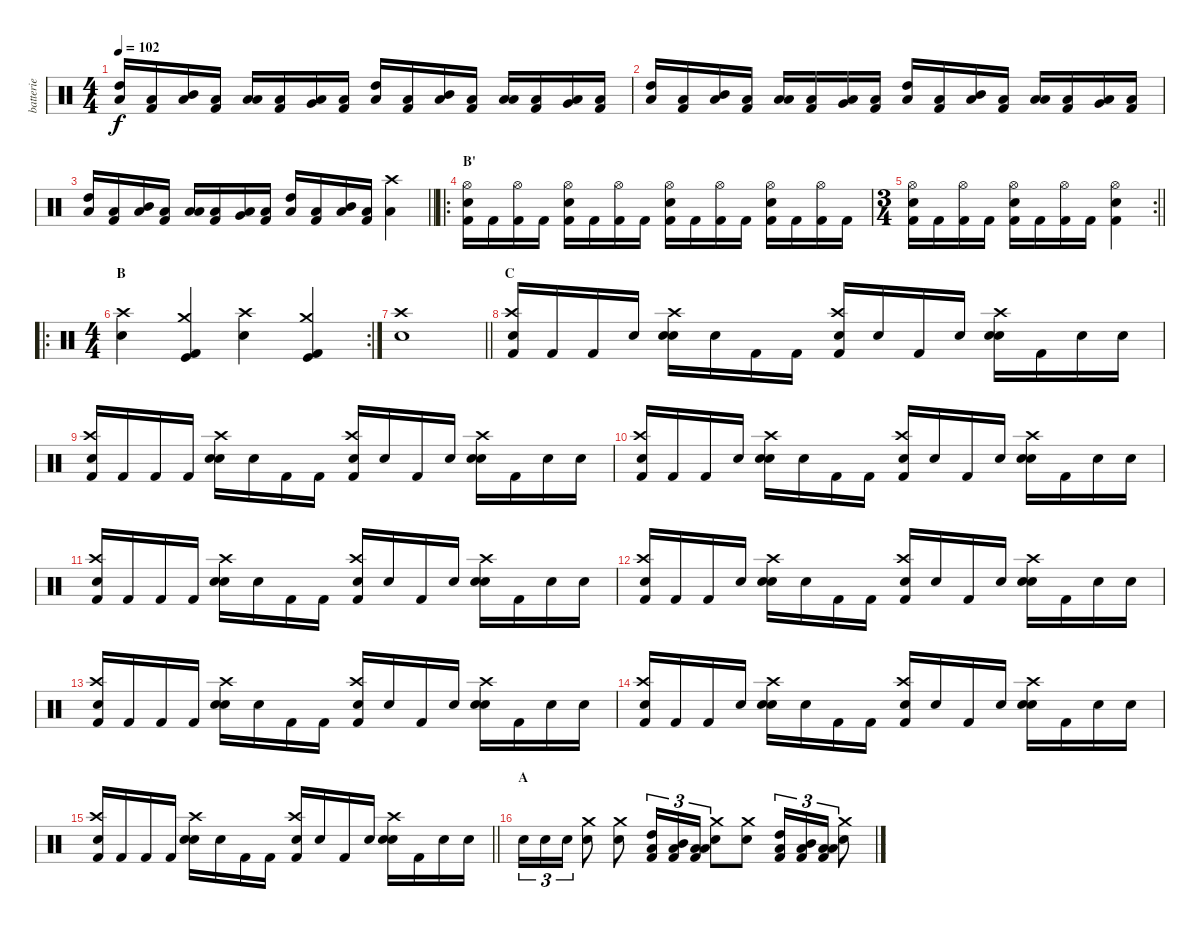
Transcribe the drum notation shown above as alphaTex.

\track ("batterie" "batterie") {instrument percussion}
\staff {score}
\articulation defaults
\ts (4 4)
\tempo 102
\clef neutral
\ks c
("High Tom (hit)" "Low Floor Tom (hit)").16{dy f} ("Low Floor Tom (hit)" "Kick (hit) 2").16 ("Mid Tom (hit)" "Low Floor Tom (hit)").16 ("Low Floor Tom (hit)" "Kick (hit) 2").16 ("Low Tom (hit)" "Low Floor Tom (hit)").16 ("Low Floor Tom (hit)" "Kick (hit) 2").16 ("Very Low Tom (hit)" "Low Floor Tom (hit)").16 ("Low Floor Tom (hit)" "Kick (hit) 2").16 ("High Tom (hit)" "Low Floor Tom (hit)").16 ("Low Floor Tom (hit)" "Kick (hit) 2").16 ("Mid Tom (hit)" "Low Floor Tom (hit)").16 ("Low Floor Tom (hit)" "Kick (hit) 2").16 ("Low Tom (hit)" "Low Floor Tom (hit)").16 ("Low Floor Tom (hit)" "Kick (hit) 2").16 ("Very Low Tom (hit)" "Low Floor Tom (hit)").16 ("Low Floor Tom (hit)" "Kick (hit) 2").16 |
("High Tom (hit)" "Low Floor Tom (hit)").16 ("Low Floor Tom (hit)" "Kick (hit) 2").16 ("Mid Tom (hit)" "Low Floor Tom (hit)").16 ("Low Floor Tom (hit)" "Kick (hit) 2").16 ("Low Tom (hit)" "Low Floor Tom (hit)").16 ("Low Floor Tom (hit)" "Kick (hit) 2").16 ("Very Low Tom (hit)" "Low Floor Tom (hit)").16 ("Low Floor Tom (hit)" "Kick (hit) 2").16 ("High Tom (hit)" "Low Floor Tom (hit)").16 ("Low Floor Tom (hit)" "Kick (hit) 2").16 ("Mid Tom (hit)" "Low Floor Tom (hit)").16 ("Low Floor Tom (hit)" "Kick (hit) 2").16 ("Low Tom (hit)" "Low Floor Tom (hit)").16 ("Low Floor Tom (hit)" "Kick (hit) 2").16 ("Very Low Tom (hit)" "Low Floor Tom (hit)").16 ("Low Floor Tom (hit)" "Kick (hit) 2").16 |
\barLineRight lightlight
("High Tom (hit)" "Low Floor Tom (hit)").16 ("Low Floor Tom (hit)" "Kick (hit) 2").16 ("Mid Tom (hit)" "Low Floor Tom (hit)").16 ("Low Floor Tom (hit)" "Kick (hit) 2").16 ("Low Tom (hit)" "Low Floor Tom (hit)").16 ("Low Floor Tom (hit)" "Kick (hit) 2").16 ("Very Low Tom (hit)" "Low Floor Tom (hit)").16 ("Low Floor Tom (hit)" "Kick (hit) 2").16 ("High Tom (hit)" "Low Floor Tom (hit)").16 ("Low Floor Tom (hit)" "Kick (hit) 2").16 ("Mid Tom (hit)" "Low Floor Tom (hit)").16 ("Low Floor Tom (hit)" "Kick (hit) 2").16 ("Low Tom (hit)" "Crash high (hit)").4 |
\ro
\section ("" "B'")
("Snare (hit) 2" "Hi-Hat (open)" "Kick (hit) 2").16 "Kick (hit) 2".16 ("Hi-Hat (open)" "Kick (hit) 2").16 "Kick (hit) 2".16 ("Snare (hit) 2" "Hi-Hat (open)" "Kick (hit) 2").16 "Kick (hit) 2".16 ("Hi-Hat (open)" "Kick (hit) 2").16 "Kick (hit) 2".16 ("Snare (hit) 2" "Hi-Hat (open)" "Kick (hit) 2").16 "Kick (hit) 2".16 ("Hi-Hat (open)" "Kick (hit) 2").16 "Kick (hit) 2".16 ("Snare (hit) 2" "Hi-Hat (open)" "Kick (hit) 2").16 "Kick (hit) 2".16 ("Hi-Hat (open)" "Kick (hit) 2").16 "Kick (hit) 2".16 |
\rc 2
\ts (3 4)
\barLineRight lightlight
("Snare (hit) 2" "Hi-Hat (open)" "Kick (hit) 2").16 "Kick (hit) 2".16 ("Hi-Hat (open)" "Kick (hit) 2").16 "Kick (hit) 2".16 ("Snare (hit) 2" "Hi-Hat (open)" "Kick (hit) 2").16 "Kick (hit) 2".16 ("Hi-Hat (open)" "Kick (hit) 2").16 "Kick (hit) 2".16 ("Snare (hit) 2" "Hi-Hat (open)" "Kick (hit) 2").4 |
\ro
\rc 2
\ts (4 4)
\section ("" "B")
("Snare (hit) 2" "Crash high (hit)").4 ("Crash medium (hit)" "Kick (hit) 2" "Kick (hit)").4 ("Snare (hit) 2" "Crash high (hit)").4 ("Crash medium (hit)" "Kick (hit)" "Kick (hit) 2").4 |
\barLineRight lightlight
("Snare (hit) 2" "Crash high (hit)").1 |
\section ("" "C")
("Snare (hit) 2" "Crash high (hit)" "Kick (hit) 2").16 "Kick (hit) 2".16 "Kick (hit) 2".16 "Snare (hit)".16 ("Snare (hit) 2" "Crash high (hit)" "Snare (hit)").16 "Snare (hit)".16 "Kick (hit) 2".16 "Kick (hit) 2".16 ("Snare (hit) 2" "Crash high (hit)" "Kick (hit) 2").16 "Snare (hit)".16 "Kick (hit) 2".16 "Snare (hit)".16 ("Snare (hit) 2" "Crash high (hit)" "Snare (hit)").16 "Kick (hit) 2".16 "Snare (hit)".16 "Snare (hit)".16 |
("Snare (hit) 2" "Crash high (hit)" "Kick (hit) 2").16 "Kick (hit) 2".16 "Kick (hit) 2".16 "Kick (hit) 2".16 ("Snare (hit) 2" "Crash high (hit)" "Snare (hit)").16 "Snare (hit)".16 "Kick (hit) 2".16 "Kick (hit) 2".16 ("Snare (hit) 2" "Crash high (hit)" "Kick (hit) 2").16 "Snare (hit)".16 "Kick (hit) 2".16 "Snare (hit)".16 ("Snare (hit) 2" "Crash high (hit)" "Snare (hit)").16 "Kick (hit) 2".16 "Snare (hit)".16 "Snare (hit)".16 |
("Snare (hit) 2" "Crash high (hit)" "Kick (hit) 2").16 "Kick (hit) 2".16 "Kick (hit) 2".16 "Snare (hit)".16 ("Snare (hit) 2" "Crash high (hit)" "Snare (hit)").16 "Snare (hit)".16 "Kick (hit) 2".16 "Kick (hit) 2".16 ("Snare (hit) 2" "Crash high (hit)" "Kick (hit) 2").16 "Snare (hit)".16 "Kick (hit) 2".16 "Snare (hit)".16 ("Snare (hit) 2" "Crash high (hit)" "Snare (hit)").16 "Kick (hit) 2".16 "Snare (hit)".16 "Snare (hit)".16 |
("Snare (hit) 2" "Crash high (hit)" "Kick (hit) 2").16 "Kick (hit) 2".16 "Kick (hit) 2".16 "Kick (hit) 2".16 ("Snare (hit) 2" "Crash high (hit)" "Snare (hit)").16 "Snare (hit)".16 "Kick (hit) 2".16 "Kick (hit) 2".16 ("Snare (hit) 2" "Crash high (hit)" "Kick (hit) 2").16 "Snare (hit)".16 "Kick (hit) 2".16 "Snare (hit)".16 ("Snare (hit) 2" "Crash high (hit)" "Snare (hit)").16 "Kick (hit) 2".16 "Snare (hit)".16 "Snare (hit)".16 |
("Snare (hit) 2" "Crash high (hit)" "Kick (hit) 2").16 "Kick (hit) 2".16 "Kick (hit) 2".16 "Snare (hit)".16 ("Snare (hit) 2" "Crash high (hit)" "Snare (hit)").16 "Snare (hit)".16 "Kick (hit) 2".16 "Kick (hit) 2".16 ("Snare (hit) 2" "Crash high (hit)" "Kick (hit) 2").16 "Snare (hit)".16 "Kick (hit) 2".16 "Snare (hit)".16 ("Snare (hit) 2" "Crash high (hit)" "Snare (hit)").16 "Kick (hit) 2".16 "Snare (hit)".16 "Snare (hit)".16 |
("Snare (hit) 2" "Crash high (hit)" "Kick (hit) 2").16 "Kick (hit) 2".16 "Kick (hit) 2".16 "Kick (hit) 2".16 ("Snare (hit) 2" "Crash high (hit)" "Snare (hit)").16 "Snare (hit)".16 "Kick (hit) 2".16 "Kick (hit) 2".16 ("Snare (hit) 2" "Crash high (hit)" "Kick (hit) 2").16 "Snare (hit)".16 "Kick (hit) 2".16 "Snare (hit)".16 ("Snare (hit) 2" "Crash high (hit)" "Snare (hit)").16 "Kick (hit) 2".16 "Snare (hit)".16 "Snare (hit)".16 |
("Snare (hit) 2" "Crash high (hit)" "Kick (hit) 2").16 "Kick (hit) 2".16 "Kick (hit) 2".16 "Snare (hit)".16 ("Snare (hit) 2" "Crash high (hit)" "Snare (hit)").16 "Snare (hit)".16 "Kick (hit) 2".16 "Kick (hit) 2".16 ("Snare (hit) 2" "Crash high (hit)" "Kick (hit) 2").16 "Snare (hit)".16 "Kick (hit) 2".16 "Snare (hit)".16 ("Snare (hit) 2" "Crash high (hit)" "Snare (hit)").16 "Kick (hit) 2".16 "Snare (hit)".16 "Snare (hit)".16 |
\barLineRight lightlight
("Snare (hit) 2" "Crash high (hit)" "Kick (hit) 2").16 "Kick (hit) 2".16 "Kick (hit) 2".16 "Kick (hit) 2".16 ("Snare (hit) 2" "Crash high (hit)" "Snare (hit)").16 "Snare (hit)".16 "Kick (hit) 2".16 "Kick (hit) 2".16 ("Snare (hit) 2" "Crash high (hit)" "Kick (hit) 2").16 "Snare (hit)".16 "Kick (hit) 2".16 "Snare (hit)".16 ("Snare (hit) 2" "Crash high (hit)" "Snare (hit)").16 "Kick (hit) 2".16 "Snare (hit)".16 "Snare (hit)".16 |
\section ("" "A")
"Snare (hit) 2".16{tu (3 2)} "Snare (hit) 2".16{tu (3 2)} "Snare (hit) 2".16{tu (3 2)} ("Snare (hit) 2" "Crash medium (hit)").8 ("Snare (hit) 2" "Crash medium (hit)").8 ("High Tom (hit)" "Low Floor Tom (hit)" "Kick (hit) 2").16{tu (3 2)} ("Mid Tom (hit)" "Low Floor Tom (hit)" "Kick (hit) 2").16{tu (3 2)} ("Low Tom (hit)" "Low Floor Tom (hit)" "Kick (hit) 2").16{tu (3 2)} ("Snare (hit) 2" "Crash medium (hit)").8 ("Snare (hit) 2" "Crash medium (hit)").8 ("High Tom (hit)" "Low Floor Tom (hit)" "Kick (hit) 2").16{tu (3 2)} ("Mid Tom (hit)" "Low Floor Tom (hit)" "Kick (hit) 2").16{tu (3 2)} ("Low Tom (hit)" "Low Floor Tom (hit)" "Kick (hit) 2").16{tu (3 2)} ("Snare (hit) 2" "Crash medium (hit)").8
